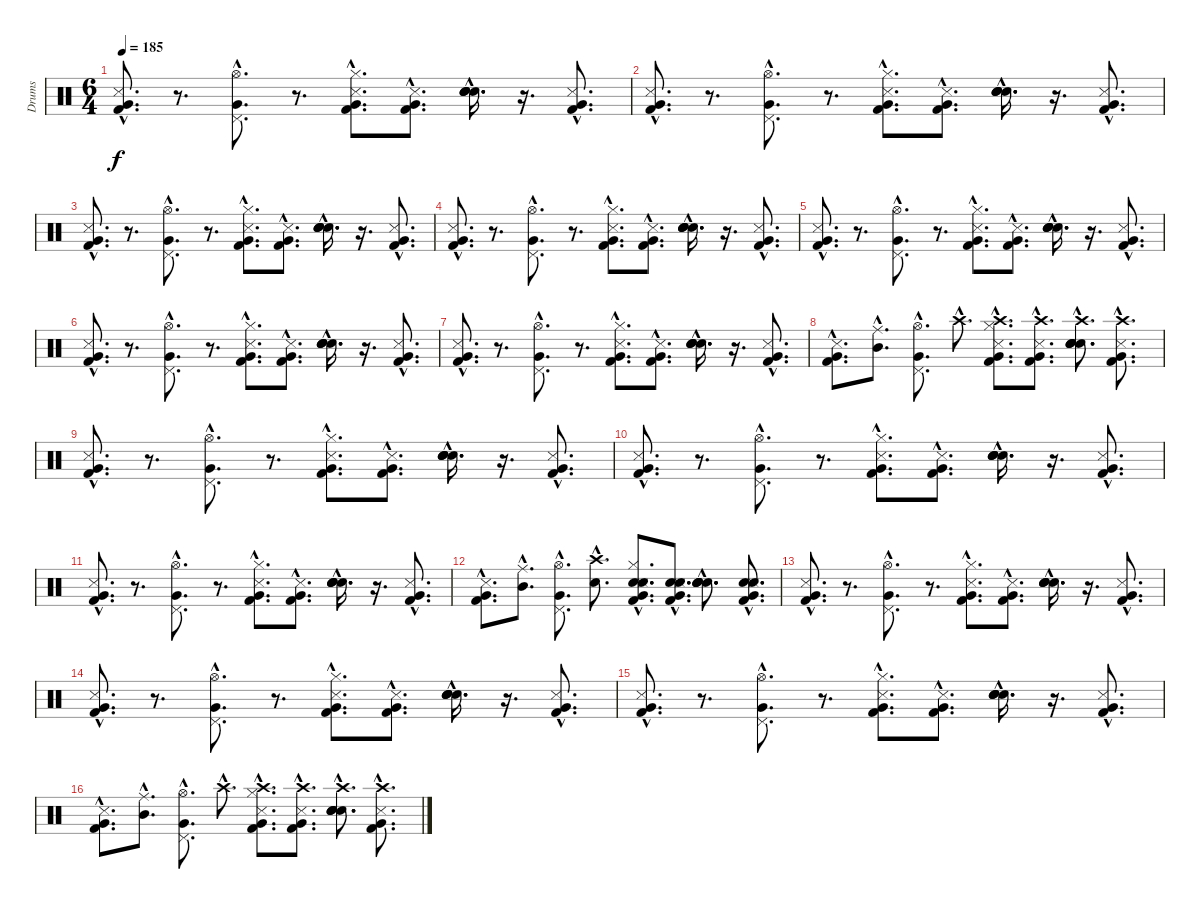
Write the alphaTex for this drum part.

\track ("Drums" "Drums") {instrument percussion}
\staff {score}
\articulation defaults
\ts (6 4)
\tempo 185
\clef neutral
\ks c
("Very Low Tom (hit)"{hac} "Metronome (hit)"{hac} "Kick (hit) 2"{hac}).8{d dy f} r.8{d} ("Very Low Tom (hit)"{hac} "Pedal Hi-Hat (hit)"{hac} "Hi-Hat (open)"{hac}).8{d} r.8{d} ("Hi-Hat (closed)"{hac} "Very Low Tom (hit)"{hac} "Metronome (hit)"{hac} "Kick (hit) 2"{hac}).8{d} ("Very Low Tom (hit)"{hac} "Metronome (hit)"{hac} "Kick (hit) 2"{hac}).8{d} ("Snare (hit) 2"{hac} "Snare (hit) 2"{hac} "Snare (hit) 2"{hac} "Snare (hit) 2"{hac}).16{d} r.16{d} ("Very Low Tom (hit)"{hac} "Metronome (hit)"{hac} "Kick (hit) 2"{hac}).8{d} |
("Very Low Tom (hit)"{hac} "Metronome (hit)"{hac} "Kick (hit) 2"{hac}).8{d} r.8{d} ("Very Low Tom (hit)"{hac} "Pedal Hi-Hat (hit)"{hac} "Hi-Hat (open)"{hac}).8{d} r.8{d} ("Hi-Hat (closed)"{hac} "Very Low Tom (hit)"{hac} "Metronome (hit)"{hac} "Kick (hit) 2"{hac}).8{d} ("Very Low Tom (hit)"{hac} "Metronome (hit)"{hac} "Kick (hit) 2"{hac}).8{d} ("Snare (hit) 2"{hac} "Snare (hit) 2"{hac} "Snare (hit) 2"{hac} "Snare (hit) 2"{hac}).16{d} r.16{d} ("Very Low Tom (hit)"{hac} "Metronome (hit)"{hac} "Kick (hit) 2"{hac}).8{d} |
("Very Low Tom (hit)"{hac} "Metronome (hit)"{hac} "Kick (hit) 2"{hac}).8{d} r.8{d} ("Very Low Tom (hit)"{hac} "Pedal Hi-Hat (hit)"{hac} "Hi-Hat (open)"{hac}).8{d} r.8{d} ("Hi-Hat (closed)"{hac} "Very Low Tom (hit)"{hac} "Metronome (hit)"{hac} "Kick (hit) 2"{hac}).8{d} ("Very Low Tom (hit)"{hac} "Metronome (hit)"{hac} "Kick (hit) 2"{hac}).8{d} ("Snare (hit) 2"{hac} "Snare (hit) 2"{hac} "Snare (hit) 2"{hac} "Snare (hit) 2"{hac}).16{d} r.16{d} ("Very Low Tom (hit)"{hac} "Metronome (hit)"{hac} "Kick (hit) 2"{hac}).8{d} |
("Very Low Tom (hit)"{hac} "Metronome (hit)"{hac} "Kick (hit) 2"{hac}).8{d} r.8{d} ("Very Low Tom (hit)"{hac} "Pedal Hi-Hat (hit)"{hac} "Hi-Hat (open)"{hac}).8{d} r.8{d} ("Hi-Hat (closed)"{hac} "Very Low Tom (hit)"{hac} "Metronome (hit)"{hac} "Kick (hit) 2"{hac}).8{d} ("Very Low Tom (hit)"{hac} "Metronome (hit)"{hac} "Kick (hit) 2"{hac}).8{d} ("Snare (hit) 2"{hac} "Snare (hit) 2"{hac} "Snare (hit) 2"{hac} "Snare (hit) 2"{hac}).16{d} r.16{d} ("Very Low Tom (hit)"{hac} "Metronome (hit)"{hac} "Kick (hit) 2"{hac}).8{d} |
("Very Low Tom (hit)"{hac} "Metronome (hit)"{hac} "Kick (hit) 2"{hac}).8{d} r.8{d} ("Very Low Tom (hit)"{hac} "Pedal Hi-Hat (hit)"{hac} "Hi-Hat (open)"{hac}).8{d} r.8{d} ("Hi-Hat (closed)"{hac} "Very Low Tom (hit)"{hac} "Metronome (hit)"{hac} "Kick (hit) 2"{hac}).8{d} ("Very Low Tom (hit)"{hac} "Metronome (hit)"{hac} "Kick (hit) 2"{hac}).8{d} ("Snare (hit) 2"{hac} "Snare (hit) 2"{hac} "Snare (hit) 2"{hac} "Snare (hit) 2"{hac}).16{d} r.16{d} ("Very Low Tom (hit)"{hac} "Metronome (hit)"{hac} "Kick (hit) 2"{hac}).8{d} |
("Very Low Tom (hit)"{hac} "Metronome (hit)"{hac} "Kick (hit) 2"{hac}).8{d} r.8{d} ("Very Low Tom (hit)"{hac} "Pedal Hi-Hat (hit)"{hac} "Hi-Hat (open)"{hac}).8{d} r.8{d} ("Hi-Hat (closed)"{hac} "Very Low Tom (hit)"{hac} "Metronome (hit)"{hac} "Kick (hit) 2"{hac}).8{d} ("Very Low Tom (hit)"{hac} "Metronome (hit)"{hac} "Kick (hit) 2"{hac}).8{d} ("Snare (hit) 2"{hac} "Snare (hit) 2"{hac} "Snare (hit) 2"{hac} "Snare (hit) 2"{hac}).16{d} r.16{d} ("Very Low Tom (hit)"{hac} "Metronome (hit)"{hac} "Kick (hit) 2"{hac}).8{d} |
("Very Low Tom (hit)"{hac} "Metronome (hit)"{hac} "Kick (hit) 2"{hac}).8{d} r.8{d} ("Very Low Tom (hit)"{hac} "Pedal Hi-Hat (hit)"{hac} "Hi-Hat (open)"{hac}).8{d} r.8{d} ("Hi-Hat (closed)"{hac} "Very Low Tom (hit)"{hac} "Metronome (hit)"{hac} "Kick (hit) 2"{hac}).8{d} ("Very Low Tom (hit)"{hac} "Metronome (hit)"{hac} "Kick (hit) 2"{hac}).8{d} ("Snare (hit) 2"{hac} "Snare (hit) 2"{hac} "Snare (hit) 2"{hac} "Snare (hit) 2"{hac}).16{d} r.16{d} ("Very Low Tom (hit)"{hac} "Metronome (hit)"{hac} "Kick (hit) 2"{hac}).8{d} |
("Very Low Tom (hit)"{hac} "Metronome (hit)"{hac} "Kick (hit) 2"{hac}).8{d} ("Mid Tom (hit)"{hac} "Ride (middle)"{hac}).8{d} ("Very Low Tom (hit)"{hac} "Pedal Hi-Hat (hit)"{hac} "Hi-Hat (open)"{hac}).8{d} "Crash high (hit)"{hac}.8{d} ("Crash high (hit)"{hac} "Hi-Hat (closed)"{hac} "Very Low Tom (hit)"{hac} "Metronome (hit)"{hac} "Kick (hit) 2"{hac}).8{d} ("Crash high (hit)"{hac} "Very Low Tom (hit)"{hac} "Metronome (hit)"{hac} "Kick (hit) 2"{hac}).8{d} ("Snare (hit) 2"{hac} "Crash high (hit)"{hac} "Snare (hit) 2"{hac} "Snare (hit) 2"{hac} "Snare (hit) 2"{hac}).8{d} ("Crash high (hit)"{hac} "Very Low Tom (hit)"{hac} "Metronome (hit)"{hac} "Kick (hit) 2"{hac}).8{d} |
("Very Low Tom (hit)"{hac} "Metronome (hit)"{hac} "Kick (hit) 2"{hac}).8{d} r.8{d} ("Very Low Tom (hit)"{hac} "Pedal Hi-Hat (hit)"{hac} "Hi-Hat (open)"{hac}).8{d} r.8{d} ("Hi-Hat (closed)"{hac} "Very Low Tom (hit)"{hac} "Metronome (hit)"{hac} "Kick (hit) 2"{hac}).8{d} ("Very Low Tom (hit)"{hac} "Metronome (hit)"{hac} "Kick (hit) 2"{hac}).8{d} ("Snare (hit) 2"{hac} "Snare (hit) 2"{hac} "Snare (hit) 2"{hac} "Snare (hit) 2"{hac}).16{d} r.16{d} ("Very Low Tom (hit)"{hac} "Metronome (hit)"{hac} "Kick (hit) 2"{hac}).8{d} |
("Very Low Tom (hit)"{hac} "Metronome (hit)"{hac} "Kick (hit) 2"{hac}).8{d} r.8{d} ("Very Low Tom (hit)"{hac} "Pedal Hi-Hat (hit)"{hac} "Hi-Hat (open)"{hac}).8{d} r.8{d} ("Hi-Hat (closed)"{hac} "Very Low Tom (hit)"{hac} "Metronome (hit)"{hac} "Kick (hit) 2"{hac}).8{d} ("Very Low Tom (hit)"{hac} "Metronome (hit)"{hac} "Kick (hit) 2"{hac}).8{d} ("Snare (hit) 2"{hac} "Snare (hit) 2"{hac} "Snare (hit) 2"{hac} "Snare (hit) 2"{hac}).16{d} r.16{d} ("Very Low Tom (hit)"{hac} "Metronome (hit)"{hac} "Kick (hit) 2"{hac}).8{d} |
("Very Low Tom (hit)"{hac} "Metronome (hit)"{hac} "Kick (hit) 2"{hac}).8{d} r.8{d} ("Very Low Tom (hit)"{hac} "Pedal Hi-Hat (hit)"{hac} "Hi-Hat (open)"{hac}).8{d} r.8{d} ("Hi-Hat (closed)"{hac} "Very Low Tom (hit)"{hac} "Metronome (hit)"{hac} "Kick (hit) 2"{hac}).8{d} ("Very Low Tom (hit)"{hac} "Metronome (hit)"{hac} "Kick (hit) 2"{hac}).8{d} ("Snare (hit) 2"{hac} "Snare (hit) 2"{hac} "Snare (hit) 2"{hac} "Snare (hit) 2"{hac}).16{d} r.16{d} ("Very Low Tom (hit)"{hac} "Metronome (hit)"{hac} "Kick (hit) 2"{hac}).8{d} |
("Very Low Tom (hit)"{hac} "Metronome (hit)"{hac} "Kick (hit) 2"{hac}).8{d} ("Mid Tom (hit)"{hac} "Ride (middle)"{hac}).8{d} ("Very Low Tom (hit)"{hac} "Pedal Hi-Hat (hit)"{hac} "Hi-Hat (open)"{hac}).8{d} ("Snare (hit) 2"{hac} "Crash high (hit)"{hac}).8{d} ("Snare (hit) 2"{hac} "Hi-Hat (closed)"{hac} "Very Low Tom (hit)"{hac} "Metronome (hit)"{hac} "Kick (hit) 2"{hac} "Electric Snare (hit)"{hac}).8{d} ("Snare (hit) 2"{hac} "Electric Snare (hit)"{hac} "Very Low Tom (hit)"{hac} "Metronome (hit)"{hac} "Kick (hit) 2"{hac}).8{d} ("Snare (hit) 2"{hac} "Electric Snare (hit)"{hac} "Snare (hit) 2"{hac} "Snare (hit) 2"{hac} "Snare (hit) 2"{hac}).8{d} ("Snare (hit) 2"{hac} "Snare (hit) 2"{hac} "Very Low Tom (hit)"{hac} "Metronome (hit)"{hac} "Kick (hit) 2"{hac}).8{d} |
("Very Low Tom (hit)"{hac} "Metronome (hit)"{hac} "Kick (hit) 2"{hac}).8{d} r.8{d} ("Very Low Tom (hit)"{hac} "Pedal Hi-Hat (hit)"{hac} "Hi-Hat (open)"{hac}).8{d} r.8{d} ("Hi-Hat (closed)"{hac} "Very Low Tom (hit)"{hac} "Metronome (hit)"{hac} "Kick (hit) 2"{hac}).8{d} ("Very Low Tom (hit)"{hac} "Metronome (hit)"{hac} "Kick (hit) 2"{hac}).8{d} ("Snare (hit) 2"{hac} "Snare (hit) 2"{hac} "Snare (hit) 2"{hac} "Snare (hit) 2"{hac}).16{d} r.16{d} ("Very Low Tom (hit)"{hac} "Metronome (hit)"{hac} "Kick (hit) 2"{hac}).8{d} |
("Very Low Tom (hit)"{hac} "Metronome (hit)"{hac} "Kick (hit) 2"{hac}).8{d} r.8{d} ("Very Low Tom (hit)"{hac} "Pedal Hi-Hat (hit)"{hac} "Hi-Hat (open)"{hac}).8{d} r.8{d} ("Hi-Hat (closed)"{hac} "Very Low Tom (hit)"{hac} "Metronome (hit)"{hac} "Kick (hit) 2"{hac}).8{d} ("Very Low Tom (hit)"{hac} "Metronome (hit)"{hac} "Kick (hit) 2"{hac}).8{d} ("Snare (hit) 2"{hac} "Snare (hit) 2"{hac} "Snare (hit) 2"{hac} "Snare (hit) 2"{hac}).16{d} r.16{d} ("Very Low Tom (hit)"{hac} "Metronome (hit)"{hac} "Kick (hit) 2"{hac}).8{d} |
("Very Low Tom (hit)"{hac} "Metronome (hit)"{hac} "Kick (hit) 2"{hac}).8{d} r.8{d} ("Very Low Tom (hit)"{hac} "Pedal Hi-Hat (hit)"{hac} "Hi-Hat (open)"{hac}).8{d} r.8{d} ("Hi-Hat (closed)"{hac} "Very Low Tom (hit)"{hac} "Metronome (hit)"{hac} "Kick (hit) 2"{hac}).8{d} ("Very Low Tom (hit)"{hac} "Metronome (hit)"{hac} "Kick (hit) 2"{hac}).8{d} ("Snare (hit) 2"{hac} "Snare (hit) 2"{hac} "Snare (hit) 2"{hac} "Snare (hit) 2"{hac}).16{d} r.16{d} ("Very Low Tom (hit)"{hac} "Metronome (hit)"{hac} "Kick (hit) 2"{hac}).8{d} |
("Very Low Tom (hit)"{hac} "Metronome (hit)"{hac} "Kick (hit) 2"{hac}).8{d} ("Mid Tom (hit)"{hac} "Ride (middle)"{hac}).8{d} ("Very Low Tom (hit)"{hac} "Pedal Hi-Hat (hit)"{hac} "Hi-Hat (open)"{hac}).8{d} "Crash high (hit)"{hac}.8{d} ("Crash high (hit)"{hac} "Hi-Hat (closed)"{hac} "Very Low Tom (hit)"{hac} "Metronome (hit)"{hac} "Kick (hit) 2"{hac}).8{d} ("Crash high (hit)"{hac} "Very Low Tom (hit)"{hac} "Metronome (hit)"{hac} "Kick (hit) 2"{hac}).8{d} ("Snare (hit) 2"{hac} "Crash high (hit)"{hac} "Snare (hit) 2"{hac} "Snare (hit) 2"{hac} "Snare (hit) 2"{hac}).8{d} ("Crash high (hit)"{hac} "Very Low Tom (hit)"{hac} "Metronome (hit)"{hac} "Kick (hit) 2"{hac}).8{d}
